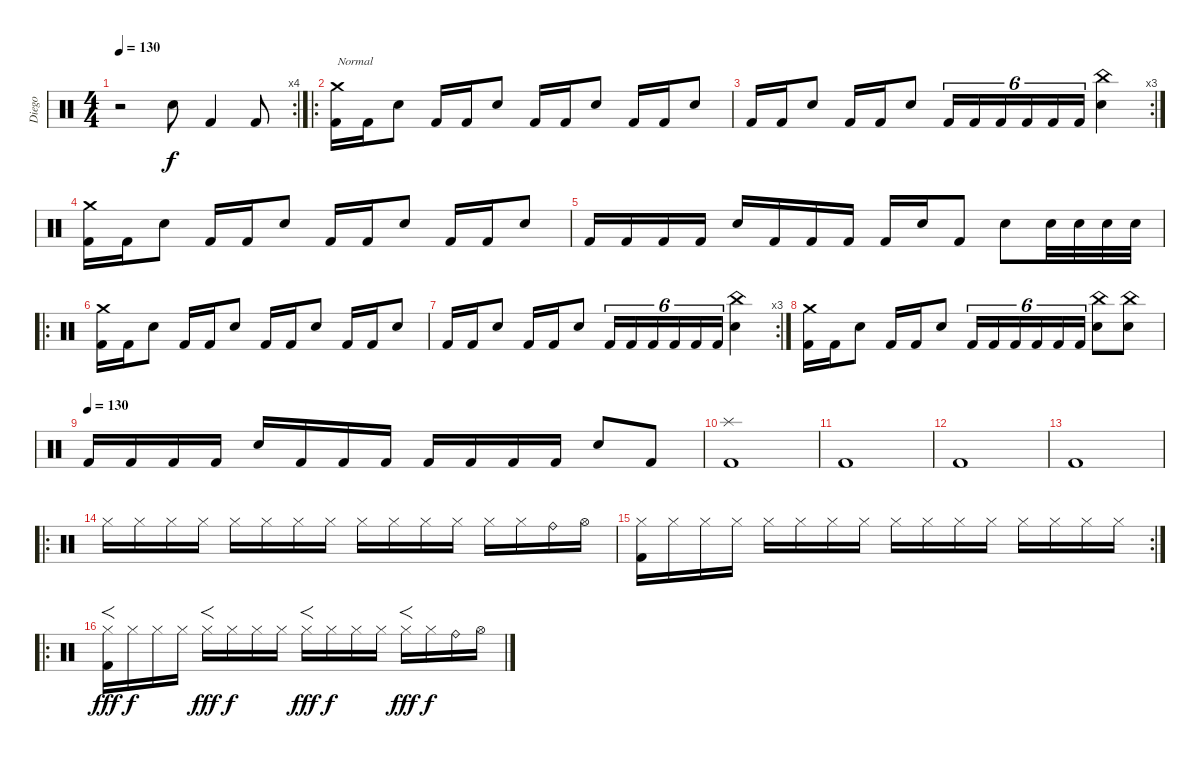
\track ("Diego" "Diego") {instrument percussion}
\staff {score}
\articulation defaults
\rc 4
\ts (4 4)
\tempo 130
\clef neutral
\ks c
r.2{dy f} "Snare (hit) 2".8 "Kick (hit) 2".4 "Kick (hit) 2".8 |
\ro
("Crash medium (hit)" "Kick (hit) 2").16{txt "Normal"} "Kick (hit) 2".16 "Snare (hit) 2".8 "Kick (hit) 2".16 "Kick (hit) 2".16 "Snare (hit) 2".8 "Kick (hit) 2".16 "Kick (hit) 2".16 "Snare (hit) 2".8 "Kick (hit) 2".16 "Kick (hit) 2".16 "Snare (hit) 2".8 |
\rc 3 "Kick (hit) 2".16 "Kick (hit) 2".16 "Snare (hit) 2".8 "Kick (hit) 2".16 "Kick (hit) 2".16 "Snare (hit) 2".8 "Kick (hit) 2".16{tu (6 4)} "Kick (hit) 2".16{tu (6 4)} "Kick (hit) 2".16{tu (6 4)} "Kick (hit) 2".16{tu (6 4)} "Kick (hit) 2".16{tu (6 4)} "Kick (hit) 2".16{tu (6 4)}
("China (hit)" "Snare (hit) 2").4 |
("Crash medium (hit)" "Kick (hit) 2").16 "Kick (hit) 2".16 "Snare (hit) 2".8 "Kick (hit) 2".16 "Kick (hit) 2".16 "Snare (hit) 2".8 "Kick (hit) 2".16 "Kick (hit) 2".16 "Snare (hit) 2".8 "Kick (hit) 2".16 "Kick (hit) 2".16 "Snare (hit) 2".8 |
"Kick (hit) 2".16 "Kick (hit) 2".16 "Kick (hit) 2".16 "Kick (hit) 2".16 "Snare (hit) 2".16 "Kick (hit) 2".16 "Kick (hit) 2".16 "Kick (hit) 2".16 "Kick (hit) 2".16 "Snare (hit) 2".16 "Kick (hit) 2".8 "Snare (hit) 2".8 "Snare (hit) 2".32 "Snare (hit) 2".32 "Snare (hit) 2".32 "Snare (hit) 2".32 |
\ro
("Crash medium (hit)" "Kick (hit) 2").16 "Kick (hit) 2".16 "Snare (hit) 2".8 "Kick (hit) 2".16 "Kick (hit) 2".16 "Snare (hit) 2".8 "Kick (hit) 2".16 "Kick (hit) 2".16 "Snare (hit) 2".8 "Kick (hit) 2".16 "Kick (hit) 2".16 "Snare (hit) 2".8 |
\rc 3 "Kick (hit) 2".16 "Kick (hit) 2".16 "Snare (hit) 2".8 "Kick (hit) 2".16 "Kick (hit) 2".16 "Snare (hit) 2".8 "Kick (hit) 2".16{tu (6 4)} "Kick (hit) 2".16{tu (6 4)} "Kick (hit) 2".16{tu (6 4)} "Kick (hit) 2".16{tu (6 4)} "Kick (hit) 2".16{tu (6 4)} "Kick (hit) 2".16{tu (6 4)}
("China (hit)" "Snare (hit) 2").4 |
("Crash medium (hit)" "Kick (hit) 2").16 "Kick (hit) 2".16 "Snare (hit) 2".8 "Kick (hit) 2".16 "Kick (hit) 2".16 "Snare (hit) 2".8 "Kick (hit) 2".16{tu (6 4)} "Kick (hit) 2".16{tu (6 4)} "Kick (hit) 2".16{tu (6 4)} "Kick (hit) 2".16{tu (6 4)} "Kick (hit) 2".16{tu (6 4)} "Kick (hit) 2".16{tu (6 4)} ("China (hit)" "Snare (hit) 2").8 ("China (hit)" "Snare (hit) 2").8 |
\tempo (130)
"Kick (hit) 2".16 "Kick (hit) 2".16 "Kick (hit) 2".16 "Kick (hit) 2".16 "Snare (hit) 2".16 "Kick (hit) 2".16 "Kick (hit) 2".16 "Kick (hit) 2".16 "Kick (hit) 2".16 "Kick (hit) 2".16 "Kick (hit) 2".16 "Kick (hit) 2".16 "Snare (hit) 2".8 "Kick (hit) 2".8 |
("Splash (hit)" "Kick (hit) 2").1 |
"Kick (hit) 2".1 |
"Kick (hit) 2".1 |
"Kick (hit) 2".1 |
\ro "Hi-Hat (closed)".16 "Hi-Hat (closed)".16 "Hi-Hat (closed)".16 "Hi-Hat (closed)".16 "Hi-Hat (closed)".16 "Hi-Hat (closed)".16 "Hi-Hat (closed)".16 "Hi-Hat (closed)".16 "Hi-Hat (closed)".16 "Hi-Hat (closed)".16 "Hi-Hat (closed)".16 "Hi-Hat (closed)".16 "Hi-Hat (closed)".16 "Hi-Hat (closed)".16 "Ride (bell)".16 "Hi-Hat (open)".16
|
\rc 2
("Hi-Hat (closed)" "Kick (hit) 2").16 "Hi-Hat (closed)".16 "Hi-Hat (closed)".16 "Hi-Hat (closed)".16 "Hi-Hat (closed)".16 "Hi-Hat (closed)".16 "Hi-Hat (closed)".16 "Hi-Hat (closed)".16 "Hi-Hat (closed)".16 "Hi-Hat (closed)".16 "Hi-Hat (closed)".16 "Hi-Hat (closed)".16 "Hi-Hat (closed)".16 "Hi-Hat (closed)".16 "Hi-Hat (closed)".16 "Hi-Hat (closed)".16 |
\ro
("Hi-Hat (closed)" "Kick (hit) 2").16{f dy fff} "Hi-Hat (closed)".16{dy f} "Hi-Hat (closed)".16 "Hi-Hat (closed)".16 "Hi-Hat (closed)".16{f dy fff} "Hi-Hat (closed)".16{dy f} "Hi-Hat (closed)".16 "Hi-Hat (closed)".16 "Hi-Hat (closed)".16{f dy fff} "Hi-Hat (closed)".16{dy f} "Hi-Hat (closed)".16 "Hi-Hat (closed)".16 "Hi-Hat (closed)".16{f dy fff} "Hi-Hat (closed)".16{dy f} "Ride (bell)".16 "Hi-Hat (open)".16
